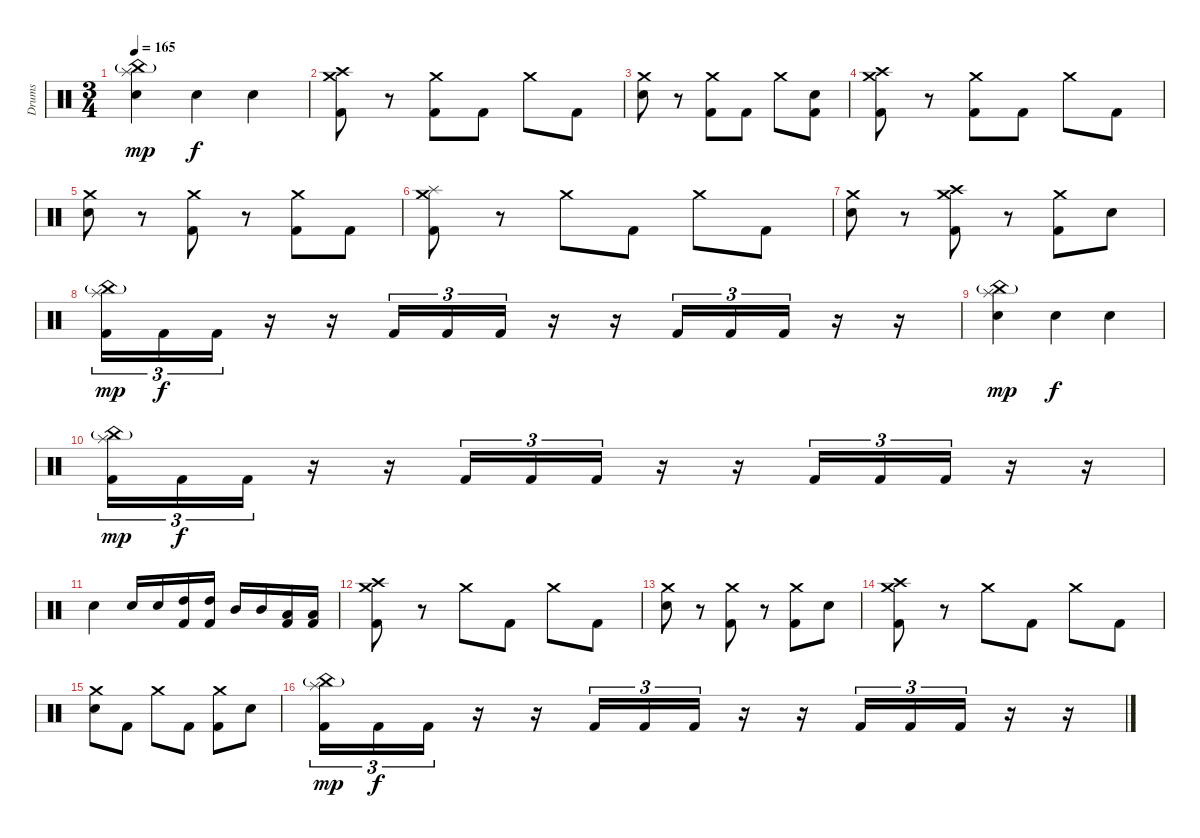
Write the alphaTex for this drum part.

\track ("Drums" "Drums") {instrument percussion}
\staff {score}
\articulation defaults
\ts (3 4)
\tempo 165
\clef neutral
\ks c
("China (hit)"{g} "Splash (hit)" "Electric Snare (hit)").4{dy mp} "Electric Snare (hit)".4{dy f} "Electric Snare (hit)".4 |
("Crash high (hit)" "Crash medium (hit)" "Kick (hit) 2").8 r.8 ("Crash medium (hit)" "Kick (hit) 2").8 "Kick (hit) 2".8 "Crash medium (hit)".8 "Kick (hit) 2".8 |
("Crash medium (hit)" "Electric Snare (hit)").8 r.8 ("Crash medium (hit)" "Kick (hit) 2").8 "Kick (hit) 2".8 "Crash medium (hit)".8 ("Electric Snare (hit)" "Kick (hit) 2").8 |
("Crash high (hit)" "Crash medium (hit)" "Kick (hit) 2").8 r.8 ("Crash medium (hit)" "Kick (hit) 2").8 "Kick (hit) 2".8 "Crash medium (hit)".8 "Kick (hit) 2".8 |
("Crash medium (hit)" "Electric Snare (hit)").8 r.8 ("Crash medium (hit)" "Kick (hit) 2").8 r.8 ("Crash medium (hit)" "Kick (hit) 2").8 "Kick (hit) 2".8 |
("Splash (hit)" "Crash medium (hit)" "Kick (hit) 2").8 r.8 "Crash medium (hit)".8 "Kick (hit) 2".8 "Crash medium (hit)".8 "Kick (hit) 2".8 |
("Crash medium (hit)" "Electric Snare (hit)").8 r.8 ("Crash high (hit)" "Crash medium (hit)" "Kick (hit) 2").8 r.8 ("Crash medium (hit)" "Kick (hit) 2").8 "Electric Snare (hit)".8 |
("China (hit)"{g} "Splash (hit)" "Kick (hit) 2").16{tu (3 2) dy mp} "Kick (hit) 2".16{tu (3 2) dy f} "Kick (hit) 2".16{tu (3 2)} r.16 r.16 "Kick (hit) 2".16{tu (3 2)} "Kick (hit) 2".16{tu (3 2)} "Kick (hit) 2".16{tu (3 2)} r.16 r.16 "Kick (hit) 2".16{tu (3 2)} "Kick (hit) 2".16{tu (3 2)} "Kick (hit) 2".16{tu (3 2)} r.16 r.16 |
("China (hit)"{g} "Splash (hit)" "Electric Snare (hit)").4{dy mp} "Electric Snare (hit)".4{dy f} "Electric Snare (hit)".4 |
("China (hit)"{g} "Splash (hit)" "Kick (hit) 2").16{tu (3 2) dy mp} "Kick (hit) 2".16{tu (3 2) dy f} "Kick (hit) 2".16{tu (3 2)} r.16 r.16 "Kick (hit) 2".16{tu (3 2)} "Kick (hit) 2".16{tu (3 2)} "Kick (hit) 2".16{tu (3 2)} r.16 r.16 "Kick (hit) 2".16{tu (3 2)} "Kick (hit) 2".16{tu (3 2)} "Kick (hit) 2".16{tu (3 2)} r.16 r.16 |
"Electric Snare (hit)".4 "Electric Snare (hit)".16 "Electric Snare (hit)".16 ("High Tom (hit)" "Kick (hit) 2").16 ("High Tom (hit)" "Kick (hit) 2").16 "Mid Tom (hit)".16 "Mid Tom (hit)".16 ("Low Tom (hit)" "Kick (hit) 2").16 ("Low Tom (hit)" "Kick (hit) 2").16 |
("Crash high (hit)" "Crash medium (hit)" "Kick (hit) 2").8 r.8 "Crash medium (hit)".8 "Kick (hit) 2".8 "Crash medium (hit)".8 "Kick (hit) 2".8 |
("Crash medium (hit)" "Electric Snare (hit)").8 r.8 ("Crash medium (hit)" "Kick (hit) 2").8 r.8 ("Crash medium (hit)" "Kick (hit) 2").8 "Electric Snare (hit)".8 |
("Crash high (hit)" "Crash medium (hit)" "Kick (hit) 2").8 r.8 "Crash medium (hit)".8 "Kick (hit) 2".8 "Crash medium (hit)".8 "Kick (hit) 2".8 |
("Crash medium (hit)" "Electric Snare (hit)").8 "Kick (hit) 2".8 "Crash medium (hit)".8 "Kick (hit) 2".8 ("Crash medium (hit)" "Kick (hit) 2").8 "Electric Snare (hit)".8 |
("China (hit)"{g} "Splash (hit)" "Kick (hit) 2").16{tu (3 2) dy mp} "Kick (hit) 2".16{tu (3 2) dy f} "Kick (hit) 2".16{tu (3 2)} r.16 r.16 "Kick (hit) 2".16{tu (3 2)} "Kick (hit) 2".16{tu (3 2)} "Kick (hit) 2".16{tu (3 2)} r.16 r.16 "Kick (hit) 2".16{tu (3 2)} "Kick (hit) 2".16{tu (3 2)} "Kick (hit) 2".16{tu (3 2)} r.16 r.16
